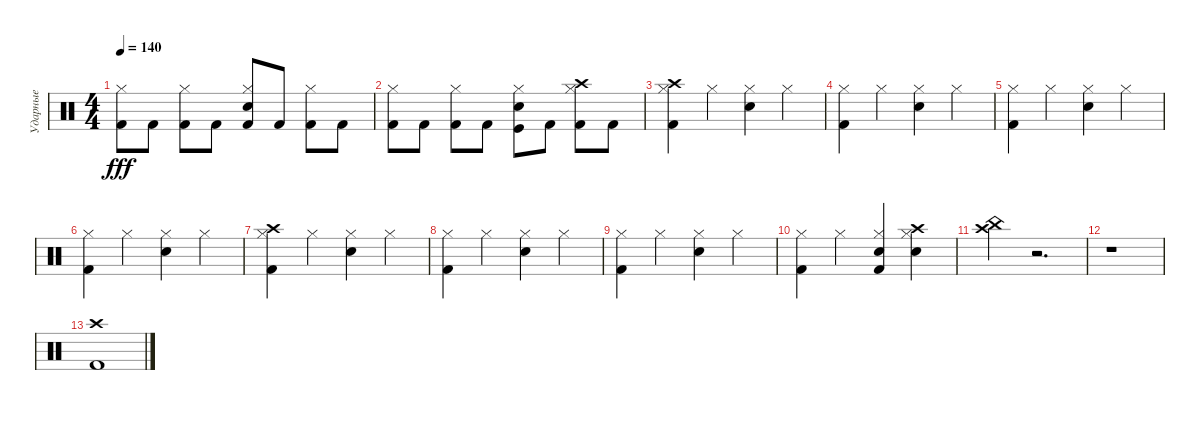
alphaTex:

\track ("Ударные" "Ударные") {instrument percussion}
\staff {score}
\articulation defaults
\ts (4 4)
\tempo 140
\clef neutral
\ks c
("Kick (hit) 2" "Hi-Hat (closed)").8{dy fff} "Kick (hit) 2".8 ("Hi-Hat (closed)" "Kick (hit) 2").8 "Kick (hit) 2".8 ("Electric Snare (hit)" "Kick (hit) 2" "Hi-Hat (closed)").8 "Kick (hit) 2".8 ("Hi-Hat (closed)" "Kick (hit) 2").8 "Kick (hit) 2".8 |
("Hi-Hat (closed)" "Kick (hit) 2").8 "Kick (hit) 2".8 ("Kick (hit) 2" "Hi-Hat (closed)").8 "Kick (hit) 2".8 ("Electric Snare (hit)" "Kick (hit)" "Hi-Hat (closed)").8 "Kick (hit) 2".8 ("Hi-Hat (closed)" "Kick (hit) 2" "Crash high (hit)").8 "Kick (hit) 2".8 |
("Kick (hit) 2" "Crash high (hit)" "Hi-Hat (closed)").4 "Hi-Hat (closed)".4 ("Electric Snare (hit)" "Hi-Hat (closed)").4 "Hi-Hat (closed)".4 |
("Kick (hit) 2" "Hi-Hat (closed)").4 "Hi-Hat (closed)".4 ("Electric Snare (hit)" "Hi-Hat (closed)").4 "Hi-Hat (closed)".4 |
("Kick (hit) 2" "Hi-Hat (closed)").4 "Hi-Hat (closed)".4 ("Electric Snare (hit)" "Hi-Hat (closed)").4 "Hi-Hat (closed)".4 |
("Kick (hit) 2" "Hi-Hat (closed)").4 "Hi-Hat (closed)".4 ("Electric Snare (hit)" "Hi-Hat (closed)").4 "Hi-Hat (closed)".4 |
("Kick (hit) 2" "Crash high (hit)" "Hi-Hat (closed)").4 "Hi-Hat (closed)".4 ("Electric Snare (hit)" "Hi-Hat (closed)").4 "Hi-Hat (closed)".4 |
("Kick (hit) 2" "Hi-Hat (closed)").4 "Hi-Hat (closed)".4 ("Electric Snare (hit)" "Hi-Hat (closed)").4 "Hi-Hat (closed)".4 |
("Kick (hit) 2" "Hi-Hat (closed)").4 "Hi-Hat (closed)".4 ("Electric Snare (hit)" "Hi-Hat (closed)").4 "Hi-Hat (closed)".4 |
("Kick (hit) 2" "Hi-Hat (closed)").4 "Hi-Hat (closed)".4 ("Kick (hit) 2" "Electric Snare (hit)" "Hi-Hat (closed)").4 ("Electric Snare (hit)" "Hi-Hat (closed)" "Crash high (hit)").4 |
("Crash high (hit)" "China (hit)").4 r.2{d} |
r.1 |
("Kick (hit) 2" "Crash high (hit)").1
